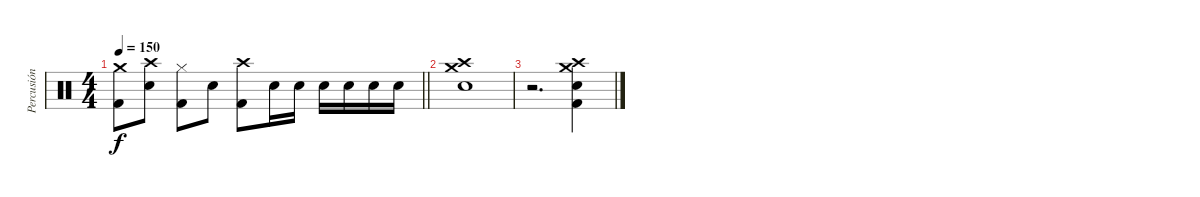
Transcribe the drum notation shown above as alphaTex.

\track ("Percusión" "Percusión") {instrument percussion}
\staff {score}
\articulation defaults
\ts (4 4)
\tempo 150
\clef neutral
\barLineRight lightlight
\ks c
("Crash medium (hit)" "Kick (hit) 2").8{dy f} ("Crash high (hit)" "Snare (hit) 2").8 ("Hi-Hat (closed)" "Kick (hit) 2").8 "Snare (hit) 2".8 ("Crash high (hit)" "Kick (hit) 2").8 "Snare (hit) 2".16 "Snare (hit) 2".16 "Snare (hit) 2".16 "Snare (hit) 2".16 "Snare (hit) 2".16 "Snare (hit) 2".16 |
("Crash medium (hit)" "Crash high (hit)" "Snare (hit) 2").1 |
r.2{d} ("Crash medium (hit)" "Crash high (hit)" "Snare (hit) 2" "Kick (hit) 2").4
